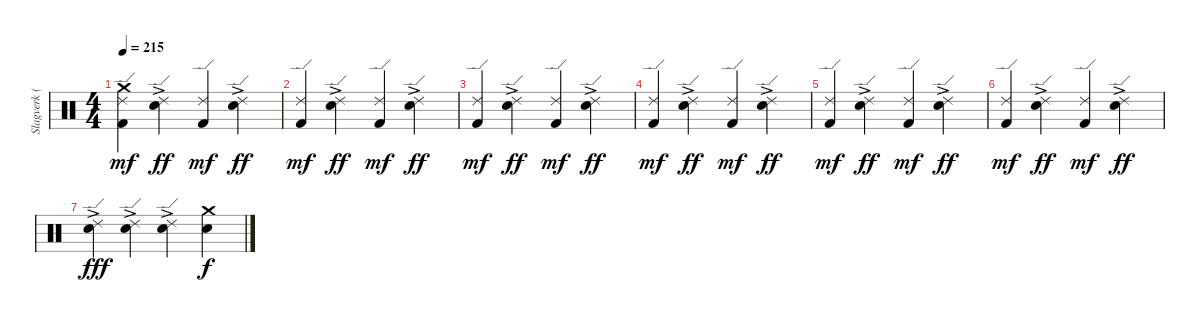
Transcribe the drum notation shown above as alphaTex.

\track ("Slagverk (Jan Kristiansen)" "Slagverk (") {instrument percussion}
\staff {score}
\articulation defaults
\ts (4 4)
\tempo 215
\clef neutral
\ks c
("Crash medium (hit)" "Ride (edge) 2" "Kick (hit) 2").4{dy mf} ("Ride (edge) 2"{ac} "Snare (hit) 2").4{dy ff} ("Ride (edge) 2" "Kick (hit) 2").4{dy mf} ("Ride (edge) 2"{ac} "Snare (hit) 2").4{dy ff} |
("Ride (edge) 2" "Kick (hit) 2").4{dy mf} ("Ride (edge) 2"{ac} "Snare (hit) 2").4{dy ff} ("Ride (edge) 2" "Kick (hit) 2").4{dy mf} ("Ride (edge) 2"{ac} "Snare (hit) 2").4{dy ff} |
("Ride (edge) 2" "Kick (hit) 2").4{dy mf} ("Ride (edge) 2"{ac} "Snare (hit) 2").4{dy ff} ("Ride (edge) 2" "Kick (hit) 2").4{dy mf} ("Ride (edge) 2"{ac} "Snare (hit) 2").4{dy ff} |
("Ride (edge) 2" "Kick (hit) 2").4{dy mf} ("Ride (edge) 2"{ac} "Snare (hit) 2").4{dy ff} ("Ride (edge) 2" "Kick (hit) 2").4{dy mf} ("Ride (edge) 2"{ac} "Snare (hit) 2").4{dy ff} |
("Ride (edge) 2" "Kick (hit) 2").4{dy mf} ("Ride (edge) 2"{ac} "Snare (hit) 2").4{dy ff} ("Ride (edge) 2" "Kick (hit) 2").4{dy mf} ("Ride (edge) 2"{ac} "Snare (hit) 2").4{dy ff} |
("Ride (edge) 2" "Kick (hit) 2").4{dy mf} ("Ride (edge) 2"{ac} "Snare (hit) 2").4{dy ff} ("Ride (edge) 2" "Kick (hit) 2").4{dy mf} ("Ride (edge) 2"{ac} "Snare (hit) 2").4{dy ff} |
("Ride (edge) 2"{ac} "Snare (hit) 2").4{dy fff} ("Ride (edge) 2"{ac} "Snare (hit) 2").4 ("Ride (edge) 2"{ac} "Snare (hit) 2").4 ("Crash medium (hit)" "Snare (hit) 2").4{dy f}
